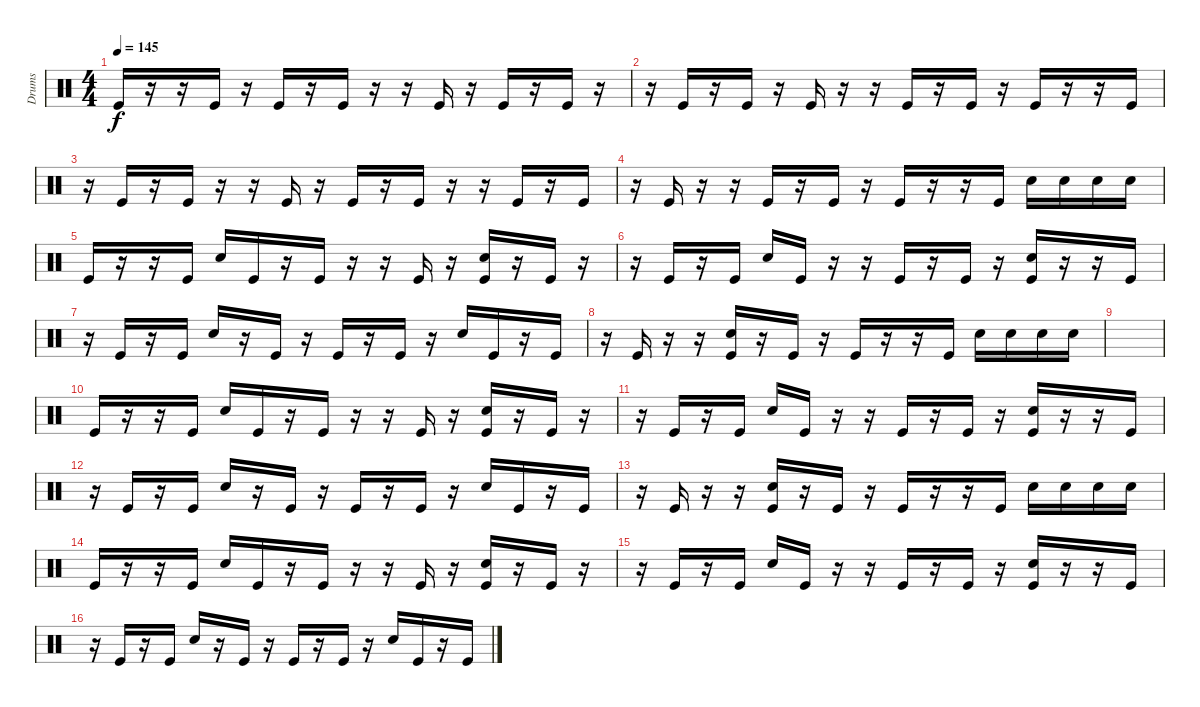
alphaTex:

\track ("Drums" "Drums") {instrument percussion}
\staff {score}
\articulation defaults
\ts (4 4)
\tempo 145
\clef neutral
\ks c "Kick (hit)".16{dy f}
r.16 r.16 "Kick (hit)".16 r.16 "Kick (hit)".16 r.16 "Kick (hit)".16 r.16 r.16 "Kick (hit)".16 r.16 "Kick (hit)".16 r.16 "Kick (hit)".16 r.16 |
r.16 "Kick (hit)".16 r.16 "Kick (hit)".16 r.16 "Kick (hit)".16 r.16 r.16 "Kick (hit)".16 r.16 "Kick (hit)".16 r.16 "Kick (hit)".16 r.16 r.16 "Kick (hit)".16 |
r.16 "Kick (hit)".16 r.16 "Kick (hit)".16 r.16 r.16 "Kick (hit)".16 r.16 "Kick (hit)".16 r.16 "Kick (hit)".16 r.16 r.16 "Kick (hit)".16 r.16 "Kick (hit)".16 |
r.16 "Kick (hit)".16 r.16 r.16 "Kick (hit)".16 r.16 "Kick (hit)".16 r.16 "Kick (hit)".16 r.16 r.16 "Kick (hit)".16 "Electric Snare (hit)".16 "Electric Snare (hit)".16 "Electric Snare (hit)".16 "Electric Snare (hit)".16 |
"Kick (hit)".16 r.16 r.16 "Kick (hit)".16 "Electric Snare (hit)".16 "Kick (hit)".16 r.16 "Kick (hit)".16 r.16 r.16 "Kick (hit)".16 r.16 ("Electric Snare (hit)" "Kick (hit)").16 r.16 "Kick (hit)".16 r.16 |
r.16 "Kick (hit)".16 r.16 "Kick (hit)".16 "Electric Snare (hit)".16 "Kick (hit)".16 r.16 r.16 "Kick (hit)".16 r.16 "Kick (hit)".16 r.16 ("Electric Snare (hit)" "Kick (hit)").16 r.16 r.16 "Kick (hit)".16 |
r.16 "Kick (hit)".16 r.16 "Kick (hit)".16 "Electric Snare (hit)".16 r.16 "Kick (hit)".16 r.16 "Kick (hit)".16 r.16 "Kick (hit)".16 r.16 "Electric Snare (hit)".16 "Kick (hit)".16 r.16 "Kick (hit)".16 |
r.16 "Kick (hit)".16 r.16 r.16 ("Electric Snare (hit)" "Kick (hit)").16 r.16 "Kick (hit)".16 r.16 "Kick (hit)".16 r.16 r.16 "Kick (hit)".16 "Electric Snare (hit)".16 "Electric Snare (hit)".16 "Electric Snare (hit)".16 "Electric Snare (hit)".16 |
|
"Kick (hit)".16 r.16 r.16 "Kick (hit)".16 "Electric Snare (hit)".16 "Kick (hit)".16 r.16 "Kick (hit)".16 r.16 r.16 "Kick (hit)".16 r.16 ("Electric Snare (hit)" "Kick (hit)").16 r.16 "Kick (hit)".16 r.16 |
r.16 "Kick (hit)".16 r.16 "Kick (hit)".16 "Electric Snare (hit)".16 "Kick (hit)".16 r.16 r.16 "Kick (hit)".16 r.16 "Kick (hit)".16 r.16 ("Electric Snare (hit)" "Kick (hit)").16 r.16 r.16 "Kick (hit)".16 |
r.16 "Kick (hit)".16 r.16 "Kick (hit)".16 "Electric Snare (hit)".16 r.16 "Kick (hit)".16 r.16 "Kick (hit)".16 r.16 "Kick (hit)".16 r.16 "Electric Snare (hit)".16 "Kick (hit)".16 r.16 "Kick (hit)".16 |
r.16 "Kick (hit)".16 r.16 r.16 ("Electric Snare (hit)" "Kick (hit)").16 r.16 "Kick (hit)".16 r.16 "Kick (hit)".16 r.16 r.16 "Kick (hit)".16 "Electric Snare (hit)".16 "Electric Snare (hit)".16 "Electric Snare (hit)".16 "Electric Snare (hit)".16 |
"Kick (hit)".16 r.16 r.16 "Kick (hit)".16 "Electric Snare (hit)".16 "Kick (hit)".16 r.16 "Kick (hit)".16 r.16 r.16 "Kick (hit)".16 r.16 ("Electric Snare (hit)" "Kick (hit)").16 r.16 "Kick (hit)".16 r.16 |
r.16 "Kick (hit)".16 r.16 "Kick (hit)".16 "Electric Snare (hit)".16 "Kick (hit)".16 r.16 r.16 "Kick (hit)".16 r.16 "Kick (hit)".16 r.16 ("Electric Snare (hit)" "Kick (hit)").16 r.16 r.16 "Kick (hit)".16 |
r.16 "Kick (hit)".16 r.16 "Kick (hit)".16 "Electric Snare (hit)".16 r.16 "Kick (hit)".16 r.16 "Kick (hit)".16 r.16 "Kick (hit)".16 r.16 "Electric Snare (hit)".16 "Kick (hit)".16 r.16 "Kick (hit)".16
